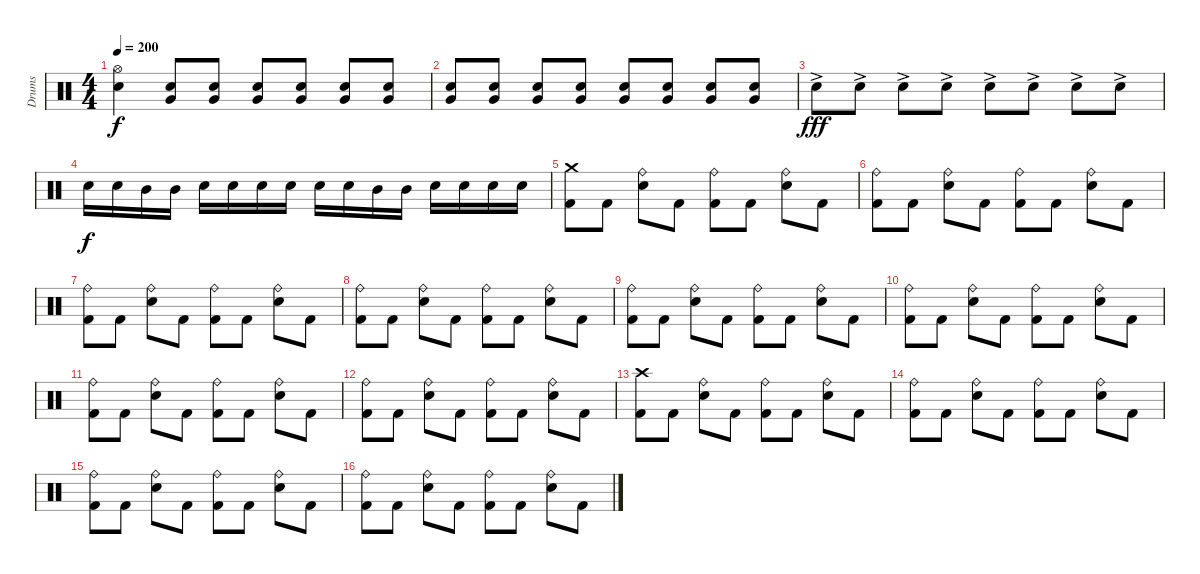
\track ("Drums" "Drums") {instrument percussion}
\staff {score}
\articulation defaults
\ts (4 4)
\tempo 200
\clef neutral
\ks c
("Hi-Hat (open)" "Electric Snare (hit)").4{dy f} ("Electric Snare (hit)" "Very Low Tom (hit)").8 ("Electric Snare (hit)" "Very Low Tom (hit)").8 ("Electric Snare (hit)" "Very Low Tom (hit)").8 ("Electric Snare (hit)" "Very Low Tom (hit)").8 ("Electric Snare (hit)" "Very Low Tom (hit)").8 ("Electric Snare (hit)" "Very Low Tom (hit)").8 |
("Electric Snare (hit)" "Very Low Tom (hit)").8 ("Electric Snare (hit)" "Very Low Tom (hit)").8 ("Electric Snare (hit)" "Very Low Tom (hit)").8 ("Electric Snare (hit)" "Very Low Tom (hit)").8 ("Electric Snare (hit)" "Very Low Tom (hit)").8 ("Electric Snare (hit)" "Very Low Tom (hit)").8 ("Electric Snare (hit)" "Very Low Tom (hit)").8 ("Electric Snare (hit)" "Very Low Tom (hit)").8 |
"Electric Snare (hit)"{ac}.8{dy fff} "Electric Snare (hit)"{ac}.8 "Electric Snare (hit)"{ac}.8 "Electric Snare (hit)"{ac}.8 "Electric Snare (hit)"{ac}.8 "Electric Snare (hit)"{ac}.8 "Electric Snare (hit)"{ac}.8 "Electric Snare (hit)"{ac}.8 |
"Electric Snare (hit)".16{dy f} "Electric Snare (hit)".16 "Mid Tom (hit)".16 "Mid Tom (hit)".16 "Electric Snare (hit)".16 "Electric Snare (hit)".16 "Electric Snare (hit)".16 "Electric Snare (hit)".16 "Electric Snare (hit)".16 "Electric Snare (hit)".16 "Mid Tom (hit)".16 "Mid Tom (hit)".16 "Electric Snare (hit)".16 "Electric Snare (hit)".16 "Electric Snare (hit)".16 "Electric Snare (hit)".16 |
("Crash medium (hit)" "Kick (hit) 2").8 "Kick (hit) 2".8 ("Ride (bell)" "Electric Snare (hit)").8 "Kick (hit) 2".8 ("Ride (bell)" "Kick (hit) 2").8 "Kick (hit) 2".8 ("Ride (bell)" "Electric Snare (hit)").8 "Kick (hit) 2".8 |
("Ride (bell)" "Kick (hit) 2").8 "Kick (hit) 2".8 ("Ride (bell)" "Electric Snare (hit)").8 "Kick (hit) 2".8 ("Ride (bell)" "Kick (hit) 2").8 "Kick (hit) 2".8 ("Ride (bell)" "Electric Snare (hit)").8 "Kick (hit) 2".8 |
("Ride (bell)" "Kick (hit) 2").8 "Kick (hit) 2".8 ("Ride (bell)" "Electric Snare (hit)").8 "Kick (hit) 2".8 ("Ride (bell)" "Kick (hit) 2").8 "Kick (hit) 2".8 ("Ride (bell)" "Electric Snare (hit)").8 "Kick (hit) 2".8 |
("Ride (bell)" "Kick (hit) 2").8 "Kick (hit) 2".8 ("Ride (bell)" "Electric Snare (hit)").8 "Kick (hit) 2".8 ("Ride (bell)" "Kick (hit) 2").8 "Kick (hit) 2".8 ("Ride (bell)" "Electric Snare (hit)").8 "Kick (hit) 2".8 |
("Ride (bell)" "Kick (hit) 2").8 "Kick (hit) 2".8 ("Ride (bell)" "Electric Snare (hit)").8 "Kick (hit) 2".8 ("Ride (bell)" "Kick (hit) 2").8 "Kick (hit) 2".8 ("Ride (bell)" "Electric Snare (hit)").8 "Kick (hit) 2".8 |
("Ride (bell)" "Kick (hit) 2").8 "Kick (hit) 2".8 ("Ride (bell)" "Electric Snare (hit)").8 "Kick (hit) 2".8 ("Ride (bell)" "Kick (hit) 2").8 "Kick (hit) 2".8 ("Ride (bell)" "Electric Snare (hit)").8 "Kick (hit) 2".8 |
("Ride (bell)" "Kick (hit) 2").8 "Kick (hit) 2".8 ("Ride (bell)" "Electric Snare (hit)").8 "Kick (hit) 2".8 ("Ride (bell)" "Kick (hit) 2").8 "Kick (hit) 2".8 ("Ride (bell)" "Electric Snare (hit)").8 "Kick (hit) 2".8 |
("Ride (bell)" "Kick (hit) 2").8 "Kick (hit) 2".8 ("Ride (bell)" "Electric Snare (hit)").8 "Kick (hit) 2".8 ("Ride (bell)" "Kick (hit) 2").8 "Kick (hit) 2".8 ("Ride (bell)" "Electric Snare (hit)").8 "Kick (hit) 2".8 |
("Kick (hit) 2" "Crash high (hit)").8 "Kick (hit) 2".8 ("Ride (bell)" "Electric Snare (hit)").8 "Kick (hit) 2".8 ("Ride (bell)" "Kick (hit) 2").8 "Kick (hit) 2".8 ("Ride (bell)" "Electric Snare (hit)").8 "Kick (hit) 2".8 |
("Ride (bell)" "Kick (hit) 2").8 "Kick (hit) 2".8 ("Ride (bell)" "Electric Snare (hit)").8 "Kick (hit) 2".8 ("Ride (bell)" "Kick (hit) 2").8 "Kick (hit) 2".8 ("Ride (bell)" "Electric Snare (hit)").8 "Kick (hit) 2".8 |
("Ride (bell)" "Kick (hit) 2").8 "Kick (hit) 2".8 ("Ride (bell)" "Electric Snare (hit)").8 "Kick (hit) 2".8 ("Ride (bell)" "Kick (hit) 2").8 "Kick (hit) 2".8 ("Ride (bell)" "Electric Snare (hit)").8 "Kick (hit) 2".8 |
("Ride (bell)" "Kick (hit) 2").8 "Kick (hit) 2".8 ("Ride (bell)" "Electric Snare (hit)").8 "Kick (hit) 2".8 ("Ride (bell)" "Kick (hit) 2").8 "Kick (hit) 2".8 ("Ride (bell)" "Electric Snare (hit)").8 "Kick (hit) 2".8
